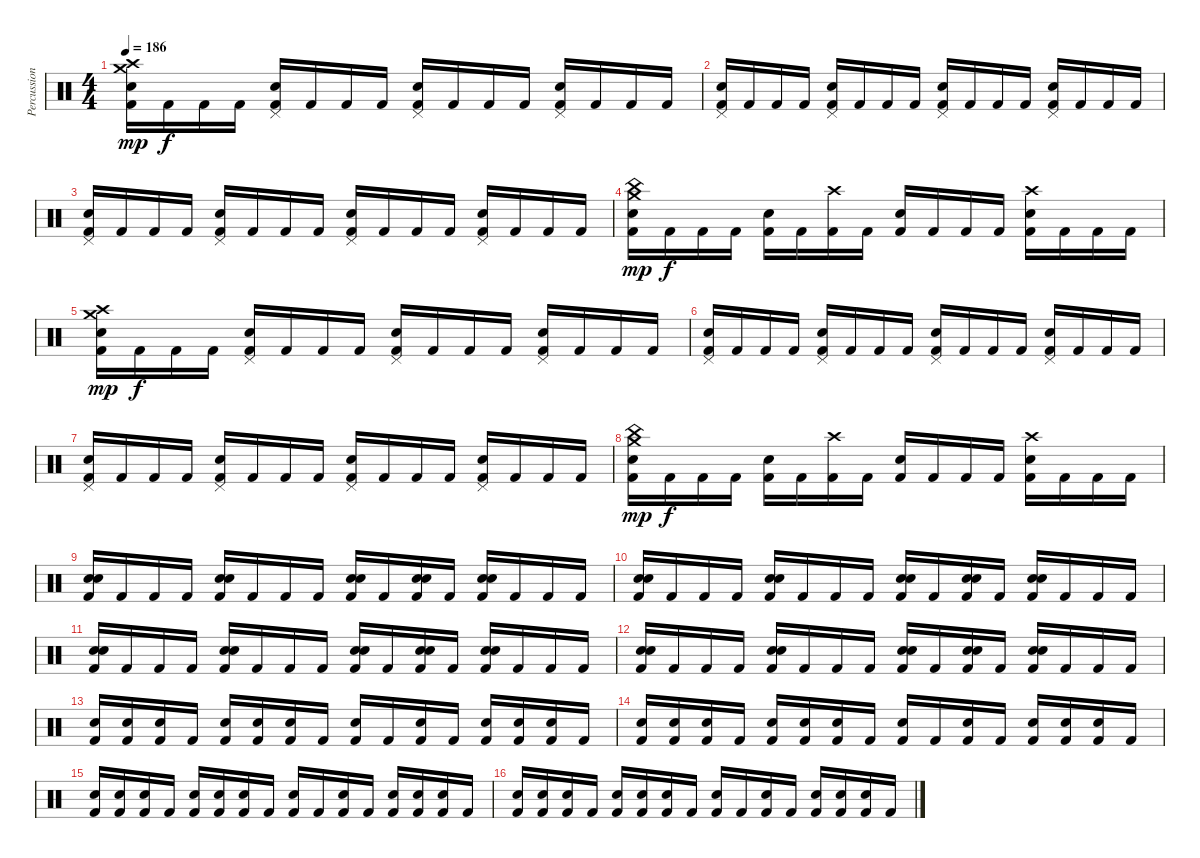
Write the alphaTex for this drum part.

\track ("Percussion" "Percussion") {instrument percussion}
\staff {score}
\articulation defaults
\ts (4 4)
\tempo 186
\clef neutral
\ks c
("Crash high (hit)" "Crash medium (hit)" "Electric Snare (hit)" "Kick (hit) 2").16{dy mp} "Kick (hit) 2".16{dy f} "Kick (hit) 2".16 "Kick (hit) 2".16 ("Pedal Hi-Hat (hit)" "Electric Snare (hit)" "Kick (hit) 2").16 "Kick (hit) 2".16 "Kick (hit) 2".16 "Kick (hit) 2".16 ("Pedal Hi-Hat (hit)" "Electric Snare (hit)" "Kick (hit) 2").16 "Kick (hit) 2".16 "Kick (hit) 2".16 "Kick (hit) 2".16 ("Pedal Hi-Hat (hit)" "Electric Snare (hit)" "Kick (hit) 2").16 "Kick (hit) 2".16 "Kick (hit) 2".16 "Kick (hit) 2".16 |
("Pedal Hi-Hat (hit)" "Electric Snare (hit)" "Kick (hit) 2").16 "Kick (hit) 2".16 "Kick (hit) 2".16 "Kick (hit) 2".16 ("Pedal Hi-Hat (hit)" "Electric Snare (hit)" "Kick (hit) 2").16 "Kick (hit) 2".16 "Kick (hit) 2".16 "Kick (hit) 2".16 ("Pedal Hi-Hat (hit)" "Electric Snare (hit)" "Kick (hit) 2").16 "Kick (hit) 2".16 "Kick (hit) 2".16 "Kick (hit) 2".16 ("Pedal Hi-Hat (hit)" "Electric Snare (hit)" "Kick (hit) 2").16 "Kick (hit) 2".16 "Kick (hit) 2".16 "Kick (hit) 2".16 |
("Pedal Hi-Hat (hit)" "Electric Snare (hit)" "Kick (hit) 2").16 "Kick (hit) 2".16 "Kick (hit) 2".16 "Kick (hit) 2".16 ("Pedal Hi-Hat (hit)" "Electric Snare (hit)" "Kick (hit) 2").16 "Kick (hit) 2".16 "Kick (hit) 2".16 "Kick (hit) 2".16 ("Pedal Hi-Hat (hit)" "Electric Snare (hit)" "Kick (hit) 2").16 "Kick (hit) 2".16 "Kick (hit) 2".16 "Kick (hit) 2".16 ("Pedal Hi-Hat (hit)" "Electric Snare (hit)" "Kick (hit) 2").16 "Kick (hit) 2".16 "Kick (hit) 2".16 "Kick (hit) 2".16 |
("Crash medium (hit)" "China (hit)" "Electric Snare (hit)" "Kick (hit) 2").16{dy mp} "Kick (hit) 2".16{dy f} "Kick (hit) 2".16 "Kick (hit) 2".16 ("Electric Snare (hit)" "Kick (hit) 2").16 "Kick (hit) 2".16 ("Crash high (hit)" "Kick (hit) 2").16 "Kick (hit) 2".16 ("Electric Snare (hit)" "Kick (hit) 2").16 "Kick (hit) 2".16 "Kick (hit) 2".16 "Kick (hit) 2".16 ("Crash high (hit)" "Electric Snare (hit)" "Kick (hit) 2").16 "Kick (hit) 2".16 "Kick (hit) 2".16 "Kick (hit) 2".16 |
("Crash high (hit)" "Crash medium (hit)" "Electric Snare (hit)" "Kick (hit) 2").16{dy mp} "Kick (hit) 2".16{dy f} "Kick (hit) 2".16 "Kick (hit) 2".16 ("Pedal Hi-Hat (hit)" "Electric Snare (hit)" "Kick (hit) 2").16 "Kick (hit) 2".16 "Kick (hit) 2".16 "Kick (hit) 2".16 ("Pedal Hi-Hat (hit)" "Electric Snare (hit)" "Kick (hit) 2").16 "Kick (hit) 2".16 "Kick (hit) 2".16 "Kick (hit) 2".16 ("Pedal Hi-Hat (hit)" "Electric Snare (hit)" "Kick (hit) 2").16 "Kick (hit) 2".16 "Kick (hit) 2".16 "Kick (hit) 2".16 |
("Pedal Hi-Hat (hit)" "Electric Snare (hit)" "Kick (hit) 2").16 "Kick (hit) 2".16 "Kick (hit) 2".16 "Kick (hit) 2".16 ("Pedal Hi-Hat (hit)" "Electric Snare (hit)" "Kick (hit) 2").16 "Kick (hit) 2".16 "Kick (hit) 2".16 "Kick (hit) 2".16 ("Pedal Hi-Hat (hit)" "Electric Snare (hit)" "Kick (hit) 2").16 "Kick (hit) 2".16 "Kick (hit) 2".16 "Kick (hit) 2".16 ("Pedal Hi-Hat (hit)" "Electric Snare (hit)" "Kick (hit) 2").16 "Kick (hit) 2".16 "Kick (hit) 2".16 "Kick (hit) 2".16 |
("Pedal Hi-Hat (hit)" "Electric Snare (hit)" "Kick (hit) 2").16 "Kick (hit) 2".16 "Kick (hit) 2".16 "Kick (hit) 2".16 ("Pedal Hi-Hat (hit)" "Electric Snare (hit)" "Kick (hit) 2").16 "Kick (hit) 2".16 "Kick (hit) 2".16 "Kick (hit) 2".16 ("Pedal Hi-Hat (hit)" "Electric Snare (hit)" "Kick (hit) 2").16 "Kick (hit) 2".16 "Kick (hit) 2".16 "Kick (hit) 2".16 ("Pedal Hi-Hat (hit)" "Electric Snare (hit)" "Kick (hit) 2").16 "Kick (hit) 2".16 "Kick (hit) 2".16 "Kick (hit) 2".16 |
("Crash medium (hit)" "China (hit)" "Electric Snare (hit)" "Kick (hit) 2").16{dy mp} "Kick (hit) 2".16{dy f} "Kick (hit) 2".16 "Kick (hit) 2".16 ("Electric Snare (hit)" "Kick (hit) 2").16 "Kick (hit) 2".16 ("Crash high (hit)" "Kick (hit) 2").16 "Kick (hit) 2".16 ("Electric Snare (hit)" "Kick (hit) 2").16 "Kick (hit) 2".16 "Kick (hit) 2".16 "Kick (hit) 2".16 ("Crash high (hit)" "Electric Snare (hit)" "Kick (hit) 2").16 "Kick (hit) 2".16 "Kick (hit) 2".16 "Kick (hit) 2".16 |
("Electric Snare (hit)" "Electric Snare (hit)" "Kick (hit) 2").16 "Kick (hit) 2".16 "Kick (hit) 2".16 "Kick (hit) 2".16 ("Electric Snare (hit)" "Electric Snare (hit)" "Kick (hit) 2").16 "Kick (hit) 2".16 "Kick (hit) 2".16 "Kick (hit) 2".16 ("Electric Snare (hit)" "Electric Snare (hit)" "Kick (hit) 2").16 "Kick (hit) 2".16 ("Electric Snare (hit)" "Electric Snare (hit)" "Kick (hit) 2").16 "Kick (hit) 2".16 ("Electric Snare (hit)" "Electric Snare (hit)" "Kick (hit) 2").16 "Kick (hit) 2".16 "Kick (hit) 2".16 "Kick (hit) 2".16 |
("Electric Snare (hit)" "Electric Snare (hit)" "Kick (hit) 2").16 "Kick (hit) 2".16 "Kick (hit) 2".16 "Kick (hit) 2".16 ("Electric Snare (hit)" "Electric Snare (hit)" "Kick (hit) 2").16 "Kick (hit) 2".16 "Kick (hit) 2".16 "Kick (hit) 2".16 ("Electric Snare (hit)" "Electric Snare (hit)" "Kick (hit) 2").16 "Kick (hit) 2".16 ("Electric Snare (hit)" "Electric Snare (hit)" "Kick (hit) 2").16 "Kick (hit) 2".16 ("Electric Snare (hit)" "Electric Snare (hit)" "Kick (hit) 2").16 "Kick (hit) 2".16 "Kick (hit) 2".16 "Kick (hit) 2".16 |
("Electric Snare (hit)" "Electric Snare (hit)" "Kick (hit) 2").16 "Kick (hit) 2".16 "Kick (hit) 2".16 "Kick (hit) 2".16 ("Electric Snare (hit)" "Electric Snare (hit)" "Kick (hit) 2").16 "Kick (hit) 2".16 "Kick (hit) 2".16 "Kick (hit) 2".16 ("Electric Snare (hit)" "Electric Snare (hit)" "Kick (hit) 2").16 "Kick (hit) 2".16 ("Electric Snare (hit)" "Electric Snare (hit)" "Kick (hit) 2").16 "Kick (hit) 2".16 ("Electric Snare (hit)" "Electric Snare (hit)" "Kick (hit) 2").16 "Kick (hit) 2".16 "Kick (hit) 2".16 "Kick (hit) 2".16 |
("Electric Snare (hit)" "Electric Snare (hit)" "Kick (hit) 2").16 "Kick (hit) 2".16 "Kick (hit) 2".16 "Kick (hit) 2".16 ("Electric Snare (hit)" "Electric Snare (hit)" "Kick (hit) 2").16 "Kick (hit) 2".16 "Kick (hit) 2".16 "Kick (hit) 2".16 ("Electric Snare (hit)" "Electric Snare (hit)" "Kick (hit) 2").16 "Kick (hit) 2".16 ("Electric Snare (hit)" "Electric Snare (hit)" "Kick (hit) 2").16 "Kick (hit) 2".16 ("Electric Snare (hit)" "Electric Snare (hit)" "Kick (hit) 2").16 "Kick (hit) 2".16 "Kick (hit) 2".16 "Kick (hit) 2".16 |
("Electric Snare (hit)" "Kick (hit) 2").16 ("Electric Snare (hit)" "Kick (hit) 2").16 ("Electric Snare (hit)" "Kick (hit) 2").16 "Kick (hit) 2".16 ("Electric Snare (hit)" "Kick (hit) 2").16 ("Electric Snare (hit)" "Kick (hit) 2").16 ("Electric Snare (hit)" "Kick (hit) 2").16 "Kick (hit) 2".16 ("Electric Snare (hit)" "Kick (hit) 2").16 "Kick (hit) 2".16 ("Electric Snare (hit)" "Kick (hit) 2").16 "Kick (hit) 2".16 ("Electric Snare (hit)" "Kick (hit) 2").16 ("Electric Snare (hit)" "Kick (hit) 2").16 ("Electric Snare (hit)" "Kick (hit) 2").16 "Kick (hit) 2".16 |
("Electric Snare (hit)" "Kick (hit) 2").16 ("Electric Snare (hit)" "Kick (hit) 2").16 ("Electric Snare (hit)" "Kick (hit) 2").16 "Kick (hit) 2".16 ("Electric Snare (hit)" "Kick (hit) 2").16 ("Electric Snare (hit)" "Kick (hit) 2").16 ("Electric Snare (hit)" "Kick (hit) 2").16 "Kick (hit) 2".16 ("Electric Snare (hit)" "Kick (hit) 2").16 "Kick (hit) 2".16 ("Electric Snare (hit)" "Kick (hit) 2").16 "Kick (hit) 2".16 ("Electric Snare (hit)" "Kick (hit) 2").16 ("Electric Snare (hit)" "Kick (hit) 2").16 ("Electric Snare (hit)" "Kick (hit) 2").16 "Kick (hit) 2".16 |
("Electric Snare (hit)" "Kick (hit) 2").16 ("Electric Snare (hit)" "Kick (hit) 2").16 ("Electric Snare (hit)" "Kick (hit) 2").16 "Kick (hit) 2".16 ("Electric Snare (hit)" "Kick (hit) 2").16 ("Electric Snare (hit)" "Kick (hit) 2").16 ("Electric Snare (hit)" "Kick (hit) 2").16 "Kick (hit) 2".16 ("Electric Snare (hit)" "Kick (hit) 2").16 "Kick (hit) 2".16 ("Electric Snare (hit)" "Kick (hit) 2").16 "Kick (hit) 2".16 ("Electric Snare (hit)" "Kick (hit) 2").16 ("Electric Snare (hit)" "Kick (hit) 2").16 ("Electric Snare (hit)" "Kick (hit) 2").16 "Kick (hit) 2".16 |
("Electric Snare (hit)" "Kick (hit) 2").16 ("Electric Snare (hit)" "Kick (hit) 2").16 ("Electric Snare (hit)" "Kick (hit) 2").16 "Kick (hit) 2".16 ("Electric Snare (hit)" "Kick (hit) 2").16 ("Electric Snare (hit)" "Kick (hit) 2").16 ("Electric Snare (hit)" "Kick (hit) 2").16 "Kick (hit) 2".16 ("Electric Snare (hit)" "Kick (hit) 2").16 "Kick (hit) 2".16 ("Electric Snare (hit)" "Kick (hit) 2").16 "Kick (hit) 2".16 ("Electric Snare (hit)" "Kick (hit) 2").16 ("Electric Snare (hit)" "Kick (hit) 2").16 ("Electric Snare (hit)" "Kick (hit) 2").16 "Kick (hit) 2".16
